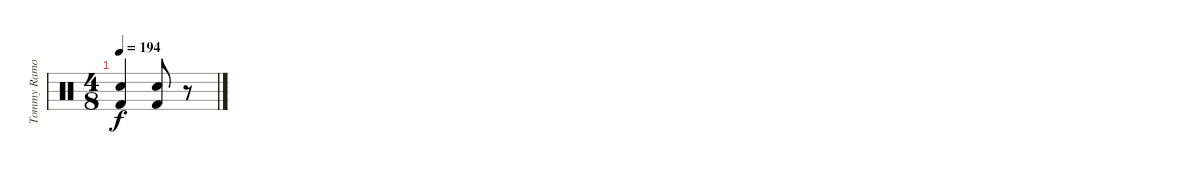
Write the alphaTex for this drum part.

\track ("Tommy Ramone - Drums" "Tommy Ramo") {instrument percussion}
\staff {score}
\articulation defaults
\ts (4 8)
\tempo 194
\clef neutral
\ks c
("Electric Snare (hit)" "Kick (hit) 2").4{dy f} ("Electric Snare (hit)" "Kick (hit) 2").8 r.8
